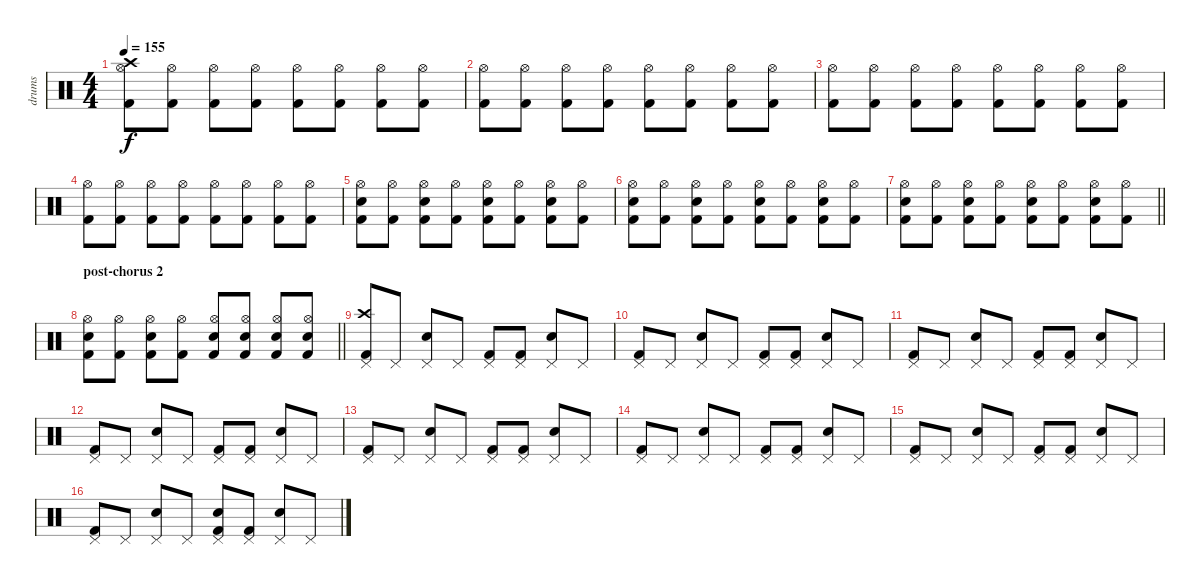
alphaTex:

\track ("drums" "drums") {instrument percussion}
\staff {score}
\articulation defaults
\ts (4 4)
\tempo 155
\clef neutral
\ks c
("Kick (hit) 2" "Hi-Hat (open)" "Crash high (hit)").8{dy f} ("Kick (hit) 2" "Hi-Hat (open)").8 ("Kick (hit) 2" "Hi-Hat (open)").8 ("Kick (hit) 2" "Hi-Hat (open)").8 ("Kick (hit) 2" "Hi-Hat (open)").8 ("Kick (hit) 2" "Hi-Hat (open)").8 ("Kick (hit) 2" "Hi-Hat (open)").8 ("Kick (hit) 2" "Hi-Hat (open)").8 |
("Kick (hit) 2" "Hi-Hat (open)").8 ("Kick (hit) 2" "Hi-Hat (open)").8 ("Kick (hit) 2" "Hi-Hat (open)").8 ("Kick (hit) 2" "Hi-Hat (open)").8 ("Kick (hit) 2" "Hi-Hat (open)").8 ("Kick (hit) 2" "Hi-Hat (open)").8 ("Kick (hit) 2" "Hi-Hat (open)").8 ("Kick (hit) 2" "Hi-Hat (open)").8 |
("Kick (hit) 2" "Hi-Hat (open)").8 ("Kick (hit) 2" "Hi-Hat (open)").8 ("Kick (hit) 2" "Hi-Hat (open)").8 ("Kick (hit) 2" "Hi-Hat (open)").8 ("Kick (hit) 2" "Hi-Hat (open)").8 ("Kick (hit) 2" "Hi-Hat (open)").8 ("Kick (hit) 2" "Hi-Hat (open)").8 ("Kick (hit) 2" "Hi-Hat (open)").8 |
("Kick (hit) 2" "Hi-Hat (open)").8 ("Kick (hit) 2" "Hi-Hat (open)").8 ("Kick (hit) 2" "Hi-Hat (open)").8 ("Kick (hit) 2" "Hi-Hat (open)").8 ("Kick (hit) 2" "Hi-Hat (open)").8 ("Kick (hit) 2" "Hi-Hat (open)").8 ("Kick (hit) 2" "Hi-Hat (open)").8 ("Kick (hit) 2" "Hi-Hat (open)").8 |
("Kick (hit) 2" "Electric Snare (hit)" "Hi-Hat (open)").8 ("Kick (hit) 2" "Hi-Hat (open)").8 ("Kick (hit) 2" "Electric Snare (hit)" "Hi-Hat (open)").8 ("Kick (hit) 2" "Hi-Hat (open)").8 ("Kick (hit) 2" "Electric Snare (hit)" "Hi-Hat (open)").8 ("Kick (hit) 2" "Hi-Hat (open)").8 ("Kick (hit) 2" "Electric Snare (hit)" "Hi-Hat (open)").8 ("Kick (hit) 2" "Hi-Hat (open)").8 |
("Kick (hit) 2" "Electric Snare (hit)" "Hi-Hat (open)").8 ("Kick (hit) 2" "Hi-Hat (open)").8 ("Kick (hit) 2" "Electric Snare (hit)" "Hi-Hat (open)").8 ("Kick (hit) 2" "Hi-Hat (open)").8 ("Kick (hit) 2" "Electric Snare (hit)" "Hi-Hat (open)").8 ("Kick (hit) 2" "Hi-Hat (open)").8 ("Kick (hit) 2" "Electric Snare (hit)" "Hi-Hat (open)").8 ("Kick (hit) 2" "Hi-Hat (open)").8 |
\barLineRight lightlight
("Kick (hit) 2" "Electric Snare (hit)" "Hi-Hat (open)").8 ("Kick (hit) 2" "Hi-Hat (open)").8 ("Kick (hit) 2" "Electric Snare (hit)" "Hi-Hat (open)").8 ("Kick (hit) 2" "Hi-Hat (open)").8 ("Kick (hit) 2" "Electric Snare (hit)" "Hi-Hat (open)").8 ("Kick (hit) 2" "Hi-Hat (open)").8 ("Kick (hit) 2" "Electric Snare (hit)" "Hi-Hat (open)").8 ("Kick (hit) 2" "Hi-Hat (open)").8 |
\section ("" "post-chorus 2")
\barLineRight lightlight
("Kick (hit) 2" "Electric Snare (hit)" "Hi-Hat (open)").8 ("Kick (hit) 2" "Hi-Hat (open)").8 ("Kick (hit) 2" "Electric Snare (hit)" "Hi-Hat (open)").8 ("Kick (hit) 2" "Hi-Hat (open)").8 ("Kick (hit) 2" "Electric Snare (hit)" "Hi-Hat (open)").8 ("Kick (hit) 2" "Electric Snare (hit)" "Hi-Hat (open)").8 ("Kick (hit) 2" "Electric Snare (hit)" "Hi-Hat (open)").8 ("Kick (hit) 2" "Electric Snare (hit)" "Hi-Hat (open)").8 |
("Kick (hit) 2" "Pedal Hi-Hat (hit)" "Crash high (hit)").8 "Pedal Hi-Hat (hit)".8 ("Electric Snare (hit)" "Pedal Hi-Hat (hit)").8 "Pedal Hi-Hat (hit)".8 ("Kick (hit) 2" "Pedal Hi-Hat (hit)").8 ("Kick (hit) 2" "Pedal Hi-Hat (hit)").8 ("Electric Snare (hit)" "Pedal Hi-Hat (hit)").8 "Pedal Hi-Hat (hit)".8 |
("Kick (hit) 2" "Pedal Hi-Hat (hit)").8 "Pedal Hi-Hat (hit)".8 ("Electric Snare (hit)" "Pedal Hi-Hat (hit)").8 "Pedal Hi-Hat (hit)".8 ("Kick (hit) 2" "Pedal Hi-Hat (hit)").8 ("Kick (hit) 2" "Pedal Hi-Hat (hit)").8 ("Electric Snare (hit)" "Pedal Hi-Hat (hit)").8 "Pedal Hi-Hat (hit)".8 |
("Kick (hit) 2" "Pedal Hi-Hat (hit)").8 "Pedal Hi-Hat (hit)".8 ("Electric Snare (hit)" "Pedal Hi-Hat (hit)").8 "Pedal Hi-Hat (hit)".8 ("Kick (hit) 2" "Pedal Hi-Hat (hit)").8 ("Kick (hit) 2" "Pedal Hi-Hat (hit)").8 ("Electric Snare (hit)" "Pedal Hi-Hat (hit)").8 "Pedal Hi-Hat (hit)".8 |
("Kick (hit) 2" "Pedal Hi-Hat (hit)").8 "Pedal Hi-Hat (hit)".8 ("Electric Snare (hit)" "Pedal Hi-Hat (hit)").8 "Pedal Hi-Hat (hit)".8 ("Kick (hit) 2" "Pedal Hi-Hat (hit)").8 ("Kick (hit) 2" "Pedal Hi-Hat (hit)").8 ("Electric Snare (hit)" "Pedal Hi-Hat (hit)").8 "Pedal Hi-Hat (hit)".8 |
("Kick (hit) 2" "Pedal Hi-Hat (hit)").8 "Pedal Hi-Hat (hit)".8 ("Electric Snare (hit)" "Pedal Hi-Hat (hit)").8 "Pedal Hi-Hat (hit)".8 ("Kick (hit) 2" "Pedal Hi-Hat (hit)").8 ("Kick (hit) 2" "Pedal Hi-Hat (hit)").8 ("Electric Snare (hit)" "Pedal Hi-Hat (hit)").8 "Pedal Hi-Hat (hit)".8 |
("Kick (hit) 2" "Pedal Hi-Hat (hit)").8 "Pedal Hi-Hat (hit)".8 ("Electric Snare (hit)" "Pedal Hi-Hat (hit)").8 "Pedal Hi-Hat (hit)".8 ("Kick (hit) 2" "Pedal Hi-Hat (hit)").8 ("Kick (hit) 2" "Pedal Hi-Hat (hit)").8 ("Electric Snare (hit)" "Pedal Hi-Hat (hit)").8 "Pedal Hi-Hat (hit)".8 |
("Kick (hit) 2" "Pedal Hi-Hat (hit)").8 "Pedal Hi-Hat (hit)".8 ("Electric Snare (hit)" "Pedal Hi-Hat (hit)").8 "Pedal Hi-Hat (hit)".8 ("Kick (hit) 2" "Pedal Hi-Hat (hit)").8 ("Kick (hit) 2" "Pedal Hi-Hat (hit)").8 ("Electric Snare (hit)" "Pedal Hi-Hat (hit)").8 "Pedal Hi-Hat (hit)".8 |
("Kick (hit) 2" "Pedal Hi-Hat (hit)").8 "Pedal Hi-Hat (hit)".8 ("Electric Snare (hit)" "Pedal Hi-Hat (hit)").8 "Pedal Hi-Hat (hit)".8 ("Kick (hit) 2" "Electric Snare (hit)" "Pedal Hi-Hat (hit)").8 ("Kick (hit) 2" "Pedal Hi-Hat (hit)").8 ("Electric Snare (hit)" "Pedal Hi-Hat (hit)").8 "Pedal Hi-Hat (hit)".8
